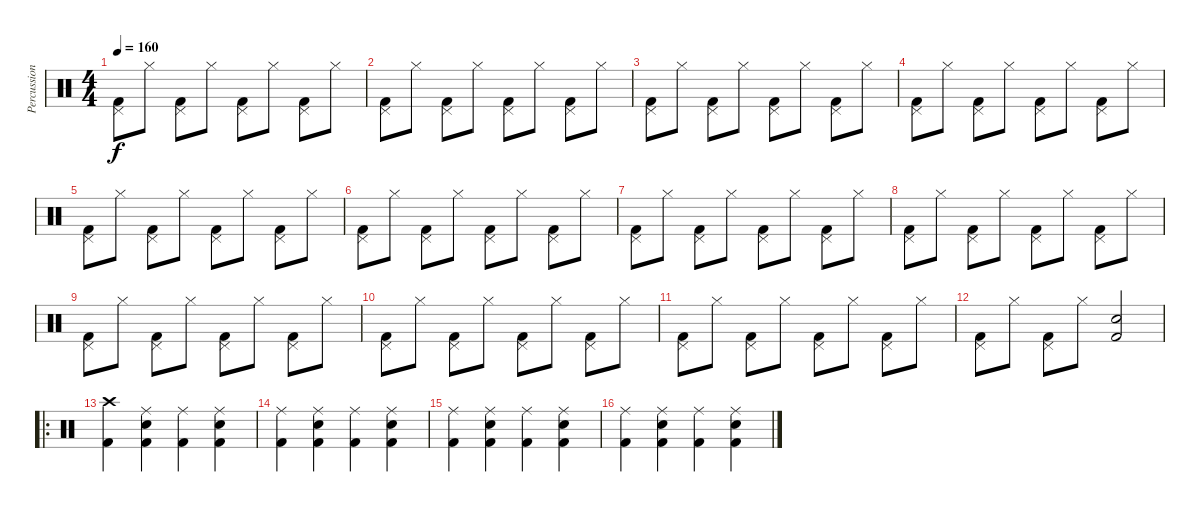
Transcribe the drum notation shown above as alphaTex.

\track ("Percussion" "Percussion") {instrument percussion}
\staff {score}
\articulation defaults
\ts (4 4)
\tempo 160
\clef neutral
\ks c
("Kick (hit) 2" "Pedal Hi-Hat (hit)").8{dy f} "Hi-Hat (closed)".8 ("Kick (hit) 2" "Pedal Hi-Hat (hit)").8 "Hi-Hat (closed)".8 ("Kick (hit) 2" "Pedal Hi-Hat (hit)").8 "Hi-Hat (closed)".8 ("Kick (hit) 2" "Pedal Hi-Hat (hit)").8 "Hi-Hat (closed)".8 |
("Kick (hit) 2" "Pedal Hi-Hat (hit)").8 "Hi-Hat (closed)".8 ("Kick (hit) 2" "Pedal Hi-Hat (hit)").8 "Hi-Hat (closed)".8 ("Kick (hit) 2" "Pedal Hi-Hat (hit)").8 "Hi-Hat (closed)".8 ("Kick (hit) 2" "Pedal Hi-Hat (hit)").8 "Hi-Hat (closed)".8 |
("Kick (hit) 2" "Pedal Hi-Hat (hit)").8 "Hi-Hat (closed)".8 ("Kick (hit) 2" "Pedal Hi-Hat (hit)").8 "Hi-Hat (closed)".8 ("Kick (hit) 2" "Pedal Hi-Hat (hit)").8 "Hi-Hat (closed)".8 ("Kick (hit) 2" "Pedal Hi-Hat (hit)").8 "Hi-Hat (closed)".8 |
("Kick (hit) 2" "Pedal Hi-Hat (hit)").8 "Hi-Hat (closed)".8 ("Kick (hit) 2" "Pedal Hi-Hat (hit)").8 "Hi-Hat (closed)".8 ("Kick (hit) 2" "Pedal Hi-Hat (hit)").8 "Hi-Hat (closed)".8 ("Kick (hit) 2" "Pedal Hi-Hat (hit)").8 "Hi-Hat (closed)".8 |
("Kick (hit) 2" "Pedal Hi-Hat (hit)").8 "Hi-Hat (closed)".8 ("Kick (hit) 2" "Pedal Hi-Hat (hit)").8 "Hi-Hat (closed)".8 ("Kick (hit) 2" "Pedal Hi-Hat (hit)").8 "Hi-Hat (closed)".8 ("Kick (hit) 2" "Pedal Hi-Hat (hit)").8 "Hi-Hat (closed)".8 |
("Kick (hit) 2" "Pedal Hi-Hat (hit)").8 "Hi-Hat (closed)".8 ("Kick (hit) 2" "Pedal Hi-Hat (hit)").8 "Hi-Hat (closed)".8 ("Kick (hit) 2" "Pedal Hi-Hat (hit)").8 "Hi-Hat (closed)".8 ("Kick (hit) 2" "Pedal Hi-Hat (hit)").8 "Hi-Hat (closed)".8 |
("Kick (hit) 2" "Pedal Hi-Hat (hit)").8 "Hi-Hat (closed)".8 ("Kick (hit) 2" "Pedal Hi-Hat (hit)").8 "Hi-Hat (closed)".8 ("Kick (hit) 2" "Pedal Hi-Hat (hit)").8 "Hi-Hat (closed)".8 ("Kick (hit) 2" "Pedal Hi-Hat (hit)").8 "Hi-Hat (closed)".8 |
("Kick (hit) 2" "Pedal Hi-Hat (hit)").8 "Hi-Hat (closed)".8 ("Kick (hit) 2" "Pedal Hi-Hat (hit)").8 "Hi-Hat (closed)".8 ("Kick (hit) 2" "Pedal Hi-Hat (hit)").8 "Hi-Hat (closed)".8 ("Kick (hit) 2" "Pedal Hi-Hat (hit)").8 "Hi-Hat (closed)".8 |
("Kick (hit) 2" "Pedal Hi-Hat (hit)").8 "Hi-Hat (closed)".8 ("Kick (hit) 2" "Pedal Hi-Hat (hit)").8 "Hi-Hat (closed)".8 ("Kick (hit) 2" "Pedal Hi-Hat (hit)").8 "Hi-Hat (closed)".8 ("Kick (hit) 2" "Pedal Hi-Hat (hit)").8 "Hi-Hat (closed)".8 |
("Kick (hit) 2" "Pedal Hi-Hat (hit)").8 "Hi-Hat (closed)".8 ("Kick (hit) 2" "Pedal Hi-Hat (hit)").8 "Hi-Hat (closed)".8 ("Kick (hit) 2" "Pedal Hi-Hat (hit)").8 "Hi-Hat (closed)".8 ("Kick (hit) 2" "Pedal Hi-Hat (hit)").8 "Hi-Hat (closed)".8 |
("Kick (hit) 2" "Pedal Hi-Hat (hit)").8 "Hi-Hat (closed)".8 ("Kick (hit) 2" "Pedal Hi-Hat (hit)").8 "Hi-Hat (closed)".8 ("Kick (hit) 2" "Pedal Hi-Hat (hit)").8 "Hi-Hat (closed)".8 ("Kick (hit) 2" "Pedal Hi-Hat (hit)").8 "Hi-Hat (closed)".8 |
("Kick (hit) 2" "Pedal Hi-Hat (hit)").8 "Hi-Hat (closed)".8 ("Kick (hit) 2" "Pedal Hi-Hat (hit)").8 "Hi-Hat (closed)".8 ("Kick (hit) 2" "Snare (hit) 2").2 |
\ro
("Crash high (hit)" "Kick (hit) 2").4 ("Ride (middle)" "Snare (hit) 2" "Kick (hit) 2").4 ("Ride (middle)" "Kick (hit) 2").4 ("Ride (middle)" "Snare (hit) 2" "Kick (hit) 2").4 |
("Ride (middle)" "Kick (hit) 2").4 ("Ride (middle)" "Snare (hit) 2" "Kick (hit) 2").4 ("Ride (middle)" "Kick (hit) 2").4 ("Ride (middle)" "Snare (hit) 2" "Kick (hit) 2").4 |
("Ride (middle)" "Kick (hit) 2").4 ("Ride (middle)" "Snare (hit) 2" "Kick (hit) 2").4 ("Ride (middle)" "Kick (hit) 2").4 ("Ride (middle)" "Snare (hit) 2" "Kick (hit) 2").4 |
("Ride (middle)" "Kick (hit) 2").4 ("Ride (middle)" "Snare (hit) 2" "Kick (hit) 2").4 ("Ride (middle)" "Kick (hit) 2").4 ("Ride (middle)" "Snare (hit) 2" "Kick (hit) 2").4
